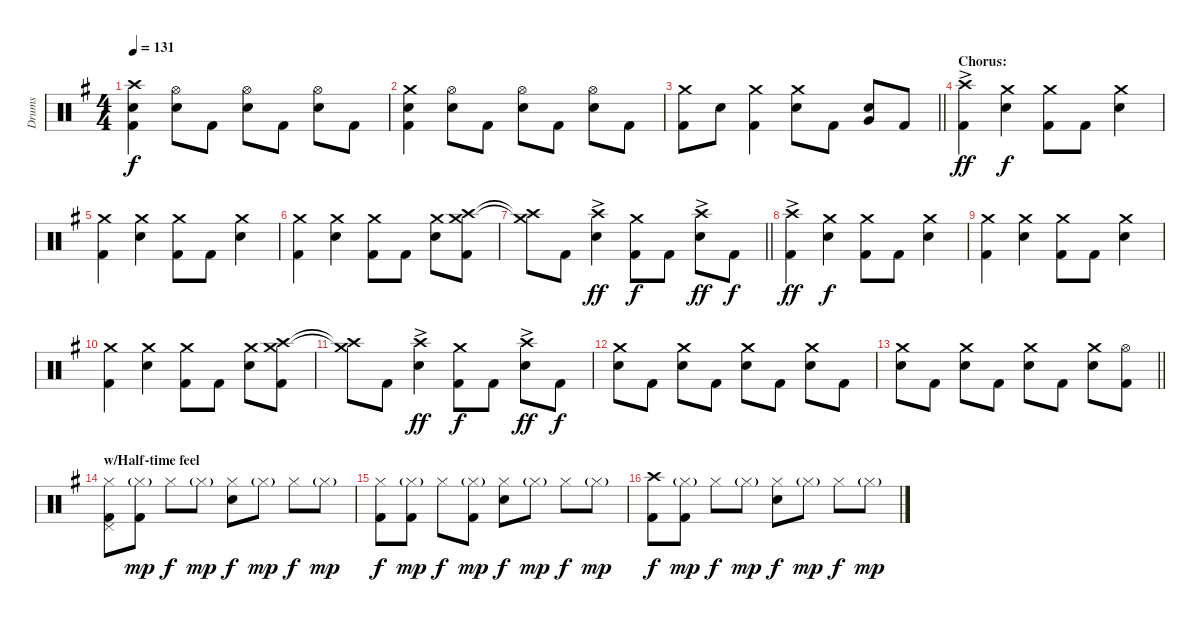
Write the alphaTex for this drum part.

\track ("Drums" "Drums") {instrument percussion}
\staff {score}
\articulation defaults
\ts (4 4)
\tempo 131
\clef neutral
\ks g
("Crash high (hit)" "Electric Snare (hit)" "Kick (hit) 2").4{dy f} ("Hi-Hat (open)" "Electric Snare (hit)").8 "Kick (hit) 2".8 ("Hi-Hat (open)" "Electric Snare (hit)").8 "Kick (hit) 2".8 ("Hi-Hat (open)" "Electric Snare (hit)").8 "Kick (hit) 2".8 |
("Crash medium (hit)" "Electric Snare (hit)" "Kick (hit) 2").4 ("Hi-Hat (open)" "Electric Snare (hit)").8 "Kick (hit) 2".8 ("Hi-Hat (open)" "Electric Snare (hit)").8 "Kick (hit) 2".8 ("Hi-Hat (open)" "Electric Snare (hit)").8 "Kick (hit) 2".8 |
\barLineRight lightlight
("Crash medium (hit)" "Kick (hit) 2").8 "Electric Snare (hit)".8 ("Crash medium (hit)" "Kick (hit) 2").4 ("Crash medium (hit)" "Electric Snare (hit)").8 "Kick (hit) 2".8 ("Very Low Tom (hit)" "Electric Snare (hit)").8 "Kick (hit) 2".8 |
\section ("" "Chorus:")
("Crash high (hit)"{ac} "Kick (hit) 2").4{dy ff} ("Crash medium (hit)" "Electric Snare (hit)").4{dy f} ("Crash medium (hit)" "Kick (hit) 2").8 "Kick (hit) 2".8 ("Crash medium (hit)" "Electric Snare (hit)").4 |
("Crash medium (hit)" "Kick (hit) 2").4 ("Crash medium (hit)" "Electric Snare (hit)").4 ("Crash medium (hit)" "Kick (hit) 2").8 "Kick (hit) 2".8 ("Crash medium (hit)" "Electric Snare (hit)").4 |
("Crash medium (hit)" "Kick (hit) 2").4 ("Crash medium (hit)" "Electric Snare (hit)").4 ("Crash medium (hit)" "Kick (hit) 2").8 "Kick (hit) 2".8 ("Crash medium (hit)" "Electric Snare (hit)").8 ("Crash high (hit)" "Crash medium (hit)" "Kick (hit) 2").8 |
\barLineRight lightlight
("Crash high (hit)"{t} "Crash medium (hit)"{t}).8 "Kick (hit) 2".8 ("Crash high (hit)"{ac} "Electric Snare (hit)").4{dy ff} ("Crash medium (hit)" "Kick (hit) 2").8{dy f} "Kick (hit) 2".8 ("Crash high (hit)"{ac} "Electric Snare (hit)").8{dy ff} "Kick (hit) 2".8{dy f} |
("Crash high (hit)"{ac} "Kick (hit) 2").4{dy ff} ("Crash medium (hit)" "Electric Snare (hit)").4{dy f} ("Crash medium (hit)" "Kick (hit) 2").8 "Kick (hit) 2".8 ("Crash medium (hit)" "Electric Snare (hit)").4 |
("Crash medium (hit)" "Kick (hit) 2").4 ("Crash medium (hit)" "Electric Snare (hit)").4 ("Crash medium (hit)" "Kick (hit) 2").8 "Kick (hit) 2".8 ("Crash medium (hit)" "Electric Snare (hit)").4 |
("Crash medium (hit)" "Kick (hit) 2").4 ("Crash medium (hit)" "Electric Snare (hit)").4 ("Crash medium (hit)" "Kick (hit) 2").8 "Kick (hit) 2".8 ("Crash medium (hit)" "Electric Snare (hit)").8 ("Crash high (hit)" "Crash medium (hit)" "Kick (hit) 2").8 |
("Crash high (hit)"{t} "Crash medium (hit)"{t}).8 "Kick (hit) 2".8 ("Crash high (hit)"{ac} "Electric Snare (hit)").4{dy ff} ("Crash medium (hit)" "Kick (hit) 2").8{dy f} "Kick (hit) 2".8 ("Crash high (hit)"{ac} "Electric Snare (hit)").8{dy ff} "Kick (hit) 2".8{dy f} |
("Crash medium (hit)" "Electric Snare (hit)").8 "Kick (hit) 2".8 ("Crash medium (hit)" "Electric Snare (hit)").8 "Kick (hit) 2".8 ("Crash medium (hit)" "Electric Snare (hit)").8 "Kick (hit) 2".8 ("Crash medium (hit)" "Electric Snare (hit)").8 "Kick (hit) 2".8 |
\barLineRight lightlight
("Crash medium (hit)" "Electric Snare (hit)").8 "Kick (hit) 2".8 ("Crash medium (hit)" "Electric Snare (hit)").8 "Kick (hit) 2".8 ("Crash medium (hit)" "Electric Snare (hit)").8 "Kick (hit) 2".8 ("Crash medium (hit)" "Electric Snare (hit)").8 ("Hi-Hat (open)" "Kick (hit) 2").8 |
\section ("" "w/Half-time feel")
("Hi-Hat (closed)" "Pedal Hi-Hat (hit)" "Kick (hit) 2").8 ("Hi-Hat (closed)"{g} "Kick (hit) 2").8{dy mp} "Hi-Hat (closed)".8{dy f} "Hi-Hat (closed)"{g}.8{dy mp} ("Hi-Hat (closed)" "Electric Snare (hit)").8{dy f} "Hi-Hat (closed)"{g}.8{dy mp} "Hi-Hat (closed)".8{dy f} "Hi-Hat (closed)"{g}.8{dy mp} |
("Hi-Hat (closed)" "Kick (hit) 2").8{dy f} ("Hi-Hat (closed)"{g} "Kick (hit) 2").8{dy mp} "Hi-Hat (closed)".8{dy f} ("Hi-Hat (closed)"{g} "Kick (hit) 2").8{dy mp} ("Hi-Hat (closed)" "Electric Snare (hit)").8{dy f} "Hi-Hat (closed)"{g}.8{dy mp} "Hi-Hat (closed)".8{dy f} "Hi-Hat (closed)"{g}.8{dy mp} |
("Crash high (hit)" "Kick (hit) 2").8{dy f} ("Hi-Hat (closed)"{g} "Kick (hit) 2").8{dy mp} "Hi-Hat (closed)".8{dy f} "Hi-Hat (closed)"{g}.8{dy mp} ("Hi-Hat (closed)" "Electric Snare (hit)").8{dy f} "Hi-Hat (closed)"{g}.8{dy mp} "Hi-Hat (closed)".8{dy f} "Hi-Hat (closed)"{g}.8{dy mp}
